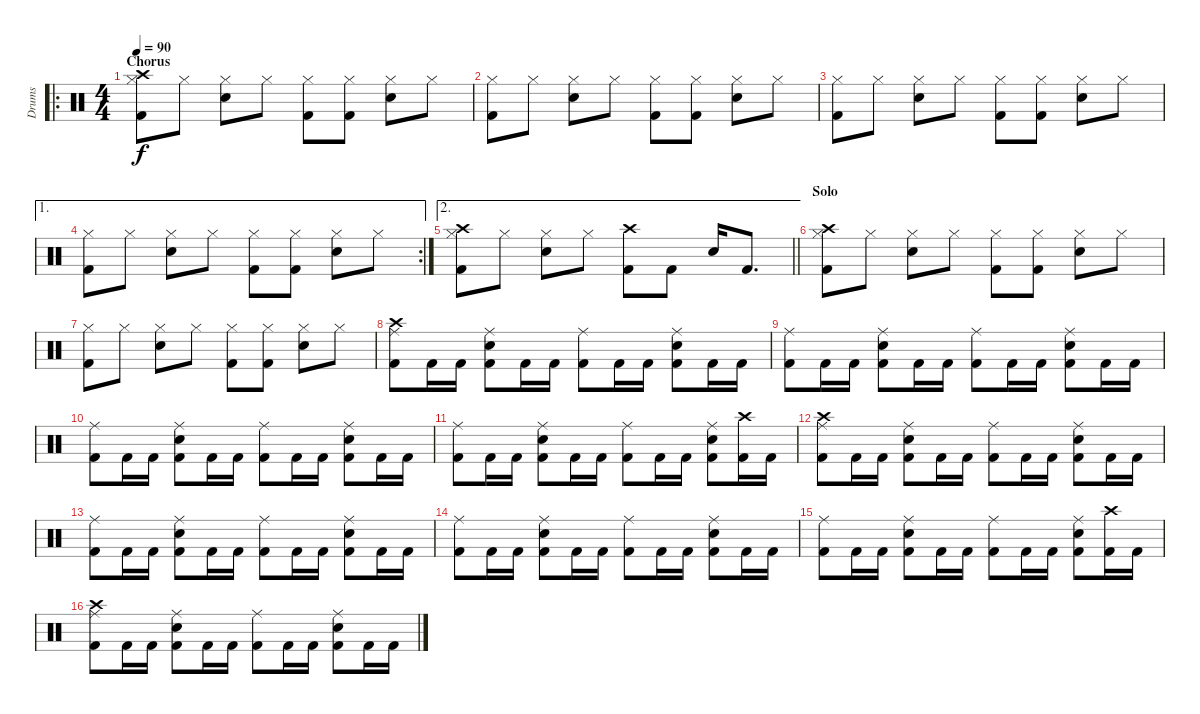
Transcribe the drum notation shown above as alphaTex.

\track ("Drums" "Drums") {instrument percussion}
\staff {score}
\articulation defaults
\ro
\ts (4 4)
\section ("" "Chorus")
\tempo 90
\clef neutral
\ks c
("Crash high (hit)" "Hi-Hat (closed)" "Kick (hit) 2").8{dy f} "Hi-Hat (closed)".8 ("Hi-Hat (closed)" "Snare (hit) 2").8 "Hi-Hat (closed)".8 ("Hi-Hat (closed)" "Kick (hit) 2").8 ("Hi-Hat (closed)" "Kick (hit) 2").8 ("Hi-Hat (closed)" "Snare (hit) 2").8 "Hi-Hat (closed)".8 |
("Hi-Hat (closed)" "Kick (hit) 2").8 "Hi-Hat (closed)".8 ("Hi-Hat (closed)" "Snare (hit) 2").8 "Hi-Hat (closed)".8 ("Hi-Hat (closed)" "Kick (hit) 2").8 ("Hi-Hat (closed)" "Kick (hit) 2").8 ("Hi-Hat (closed)" "Snare (hit) 2").8 "Hi-Hat (closed)".8 |
("Hi-Hat (closed)" "Kick (hit) 2").8 "Hi-Hat (closed)".8 ("Hi-Hat (closed)" "Snare (hit) 2").8 "Hi-Hat (closed)".8 ("Hi-Hat (closed)" "Kick (hit) 2").8 ("Hi-Hat (closed)" "Kick (hit) 2").8 ("Hi-Hat (closed)" "Snare (hit) 2").8 "Hi-Hat (closed)".8 |
\ae 1
\rc 2
("Hi-Hat (closed)" "Kick (hit) 2").8 "Hi-Hat (closed)".8 ("Hi-Hat (closed)" "Snare (hit) 2").8 "Hi-Hat (closed)".8 ("Hi-Hat (closed)" "Kick (hit) 2").8 ("Hi-Hat (closed)" "Kick (hit) 2").8 ("Hi-Hat (closed)" "Snare (hit) 2").8 "Hi-Hat (closed)".8 |
\ae 2
\barLineRight lightlight
("Crash high (hit)" "Hi-Hat (closed)" "Kick (hit) 2").8 "Hi-Hat (closed)".8 ("Hi-Hat (closed)" "Snare (hit) 2").8 "Hi-Hat (closed)".8 ("Crash high (hit)" "Kick (hit) 2").8 "Kick (hit) 2".8 "Snare (hit) 2".16 "Kick (hit) 2".8{d} |
\section ("" "Solo")
("Crash high (hit)" "Hi-Hat (closed)" "Kick (hit) 2").8 "Hi-Hat (closed)".8 ("Hi-Hat (closed)" "Snare (hit) 2").8 "Hi-Hat (closed)".8 ("Hi-Hat (closed)" "Kick (hit) 2").8 ("Hi-Hat (closed)" "Kick (hit) 2").8 ("Hi-Hat (closed)" "Snare (hit) 2").8 "Hi-Hat (closed)".8 |
("Hi-Hat (closed)" "Kick (hit) 2").8 "Hi-Hat (closed)".8 ("Hi-Hat (closed)" "Snare (hit) 2").8 "Hi-Hat (closed)".8 ("Hi-Hat (closed)" "Kick (hit) 2").8 ("Hi-Hat (closed)" "Kick (hit) 2").8 ("Hi-Hat (closed)" "Snare (hit) 2").8 "Hi-Hat (closed)".8 |
("Crash high (hit)" "Ride (middle)" "Kick (hit) 2").8 "Kick (hit) 2".16 "Kick (hit) 2".16 ("Ride (middle)" "Snare (hit) 2" "Kick (hit) 2").8 "Kick (hit) 2".16 "Kick (hit) 2".16 ("Ride (middle)" "Kick (hit) 2").8 "Kick (hit) 2".16 "Kick (hit) 2".16 ("Ride (middle)" "Snare (hit) 2" "Kick (hit) 2").8 "Kick (hit) 2".16 "Kick (hit) 2".16 |
("Ride (middle)" "Kick (hit) 2").8 "Kick (hit) 2".16 "Kick (hit) 2".16 ("Ride (middle)" "Snare (hit) 2" "Kick (hit) 2").8 "Kick (hit) 2".16 "Kick (hit) 2".16 ("Ride (middle)" "Kick (hit) 2").8 "Kick (hit) 2".16 "Kick (hit) 2".16 ("Ride (middle)" "Snare (hit) 2" "Kick (hit) 2").8 "Kick (hit) 2".16 "Kick (hit) 2".16 |
("Ride (middle)" "Kick (hit) 2").8 "Kick (hit) 2".16 "Kick (hit) 2".16 ("Ride (middle)" "Snare (hit) 2" "Kick (hit) 2").8 "Kick (hit) 2".16 "Kick (hit) 2".16 ("Ride (middle)" "Kick (hit) 2").8 "Kick (hit) 2".16 "Kick (hit) 2".16 ("Ride (middle)" "Snare (hit) 2" "Kick (hit) 2").8 "Kick (hit) 2".16 "Kick (hit) 2".16 |
("Ride (middle)" "Kick (hit) 2").8 "Kick (hit) 2".16 "Kick (hit) 2".16 ("Ride (middle)" "Snare (hit) 2" "Kick (hit) 2").8 "Kick (hit) 2".16 "Kick (hit) 2".16 ("Ride (middle)" "Kick (hit) 2").8 "Kick (hit) 2".16 "Kick (hit) 2".16 ("Ride (middle)" "Snare (hit) 2" "Kick (hit) 2").8 ("Crash high (hit)" "Kick (hit) 2").16 "Kick (hit) 2".16 |
("Crash high (hit)" "Ride (middle)" "Kick (hit) 2").8 "Kick (hit) 2".16 "Kick (hit) 2".16 ("Ride (middle)" "Snare (hit) 2" "Kick (hit) 2").8 "Kick (hit) 2".16 "Kick (hit) 2".16 ("Ride (middle)" "Kick (hit) 2").8 "Kick (hit) 2".16 "Kick (hit) 2".16 ("Ride (middle)" "Snare (hit) 2" "Kick (hit) 2").8 "Kick (hit) 2".16 "Kick (hit) 2".16 |
("Ride (middle)" "Kick (hit) 2").8 "Kick (hit) 2".16 "Kick (hit) 2".16 ("Ride (middle)" "Snare (hit) 2" "Kick (hit) 2").8 "Kick (hit) 2".16 "Kick (hit) 2".16 ("Ride (middle)" "Kick (hit) 2").8 "Kick (hit) 2".16 "Kick (hit) 2".16 ("Ride (middle)" "Snare (hit) 2" "Kick (hit) 2").8 "Kick (hit) 2".16 "Kick (hit) 2".16 |
("Ride (middle)" "Kick (hit) 2").8 "Kick (hit) 2".16 "Kick (hit) 2".16 ("Ride (middle)" "Snare (hit) 2" "Kick (hit) 2").8 "Kick (hit) 2".16 "Kick (hit) 2".16 ("Ride (middle)" "Kick (hit) 2").8 "Kick (hit) 2".16 "Kick (hit) 2".16 ("Ride (middle)" "Snare (hit) 2" "Kick (hit) 2").8 "Kick (hit) 2".16 "Kick (hit) 2".16 |
("Ride (middle)" "Kick (hit) 2").8 "Kick (hit) 2".16 "Kick (hit) 2".16 ("Ride (middle)" "Snare (hit) 2" "Kick (hit) 2").8 "Kick (hit) 2".16 "Kick (hit) 2".16 ("Ride (middle)" "Kick (hit) 2").8 "Kick (hit) 2".16 "Kick (hit) 2".16 ("Ride (middle)" "Snare (hit) 2" "Kick (hit) 2").8 ("Crash high (hit)" "Kick (hit) 2").16 "Kick (hit) 2".16 |
("Crash high (hit)" "Ride (middle)" "Kick (hit) 2").8 "Kick (hit) 2".16 "Kick (hit) 2".16 ("Ride (middle)" "Snare (hit) 2" "Kick (hit) 2").8 "Kick (hit) 2".16 "Kick (hit) 2".16 ("Ride (middle)" "Kick (hit) 2").8 "Kick (hit) 2".16 "Kick (hit) 2".16 ("Ride (middle)" "Snare (hit) 2" "Kick (hit) 2").8 "Kick (hit) 2".16 "Kick (hit) 2".16
